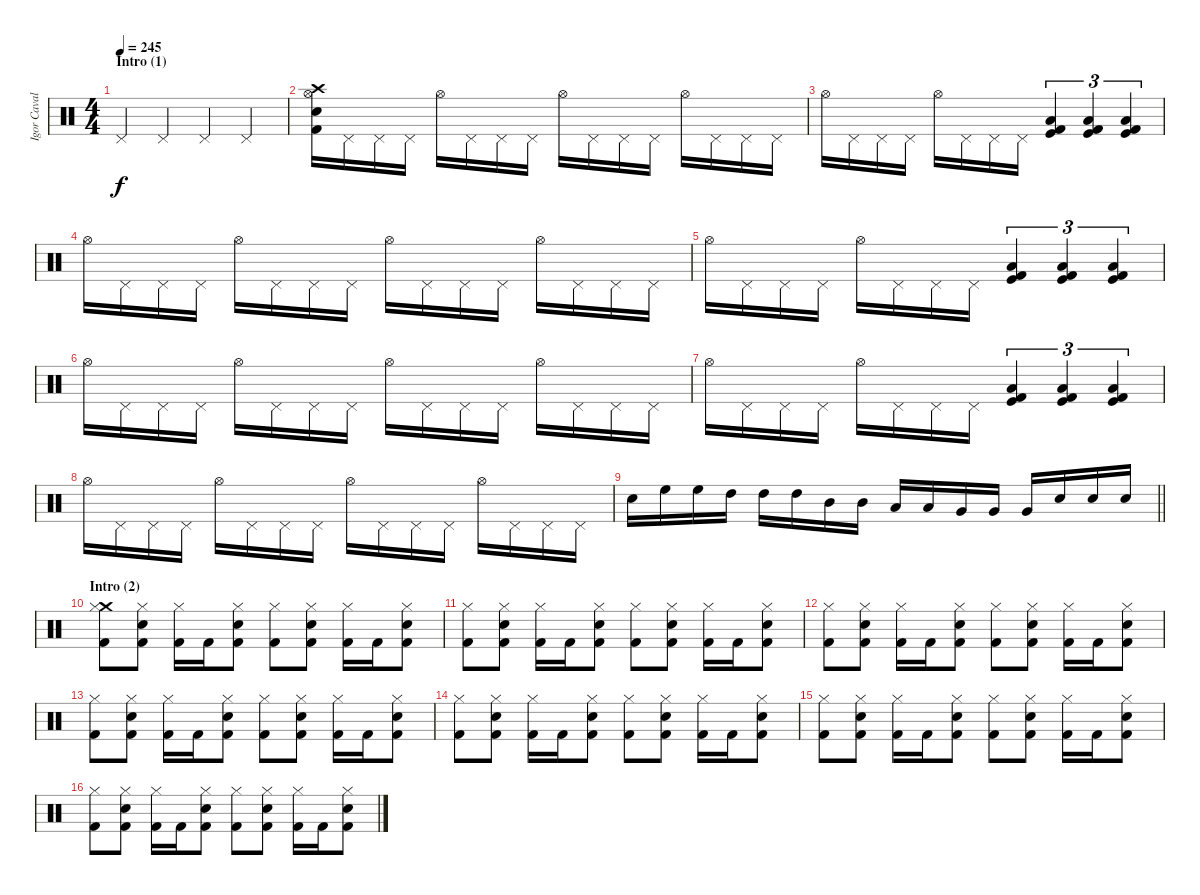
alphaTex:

\track ("Igor Cavalera" "Igor Caval") {instrument percussion}
\staff {score}
\articulation defaults
\ts (4 4)
\section ("" "Intro (1)")
\tempo 245
\clef neutral
\ks c "Pedal Hi-Hat (hit)".4{dy f} "Pedal Hi-Hat (hit)".4 "Pedal Hi-Hat (hit)".4 "Pedal Hi-Hat (hit)".4
|
("Crash high (hit)" "Hi-Hat (open)" "Electric Snare (hit)" "Kick (hit) 2").16 "Pedal Hi-Hat (hit)".16 "Pedal Hi-Hat (hit)".16 "Pedal Hi-Hat (hit)".16 "Hi-Hat (open)".16 "Pedal Hi-Hat (hit)".16 "Pedal Hi-Hat (hit)".16 "Pedal Hi-Hat (hit)".16 "Hi-Hat (open)".16 "Pedal Hi-Hat (hit)".16 "Pedal Hi-Hat (hit)".16 "Pedal Hi-Hat (hit)".16 "Hi-Hat (open)".16 "Pedal Hi-Hat (hit)".16 "Pedal Hi-Hat (hit)".16 "Pedal Hi-Hat (hit)".16 |
"Hi-Hat (open)".16 "Pedal Hi-Hat (hit)".16 "Pedal Hi-Hat (hit)".16 "Pedal Hi-Hat (hit)".16 "Hi-Hat (open)".16 "Pedal Hi-Hat (hit)".16 "Pedal Hi-Hat (hit)".16 "Pedal Hi-Hat (hit)".16 ("Low Tom (hit)" "Kick (hit) 2" "Kick (hit)").4{tu (3 2)} ("Low Tom (hit)" "Kick (hit) 2" "Kick (hit)").4{tu (3 2)} ("Low Tom (hit)" "Kick (hit) 2" "Kick (hit)").4{tu (3 2)} |
"Hi-Hat (open)".16 "Pedal Hi-Hat (hit)".16 "Pedal Hi-Hat (hit)".16 "Pedal Hi-Hat (hit)".16 "Hi-Hat (open)".16 "Pedal Hi-Hat (hit)".16 "Pedal Hi-Hat (hit)".16 "Pedal Hi-Hat (hit)".16 "Hi-Hat (open)".16 "Pedal Hi-Hat (hit)".16 "Pedal Hi-Hat (hit)".16 "Pedal Hi-Hat (hit)".16 "Hi-Hat (open)".16 "Pedal Hi-Hat (hit)".16 "Pedal Hi-Hat (hit)".16 "Pedal Hi-Hat (hit)".16 |
"Hi-Hat (open)".16 "Pedal Hi-Hat (hit)".16 "Pedal Hi-Hat (hit)".16 "Pedal Hi-Hat (hit)".16 "Hi-Hat (open)".16 "Pedal Hi-Hat (hit)".16 "Pedal Hi-Hat (hit)".16 "Pedal Hi-Hat (hit)".16 ("Low Tom (hit)" "Kick (hit) 2" "Kick (hit)").4{tu (3 2)} ("Low Tom (hit)" "Kick (hit) 2" "Kick (hit)").4{tu (3 2)} ("Low Tom (hit)" "Kick (hit) 2" "Kick (hit)").4{tu (3 2)} |
"Hi-Hat (open)".16 "Pedal Hi-Hat (hit)".16 "Pedal Hi-Hat (hit)".16 "Pedal Hi-Hat (hit)".16 "Hi-Hat (open)".16 "Pedal Hi-Hat (hit)".16 "Pedal Hi-Hat (hit)".16 "Pedal Hi-Hat (hit)".16 "Hi-Hat (open)".16 "Pedal Hi-Hat (hit)".16 "Pedal Hi-Hat (hit)".16 "Pedal Hi-Hat (hit)".16 "Hi-Hat (open)".16 "Pedal Hi-Hat (hit)".16 "Pedal Hi-Hat (hit)".16 "Pedal Hi-Hat (hit)".16 |
"Hi-Hat (open)".16 "Pedal Hi-Hat (hit)".16 "Pedal Hi-Hat (hit)".16 "Pedal Hi-Hat (hit)".16 "Hi-Hat (open)".16 "Pedal Hi-Hat (hit)".16 "Pedal Hi-Hat (hit)".16 "Pedal Hi-Hat (hit)".16 ("Low Tom (hit)" "Kick (hit) 2" "Kick (hit)").4{tu (3 2)} ("Low Tom (hit)" "Kick (hit) 2" "Kick (hit)").4{tu (3 2)} ("Low Tom (hit)" "Kick (hit) 2" "Kick (hit)").4{tu (3 2)} |
"Hi-Hat (open)".16 "Pedal Hi-Hat (hit)".16 "Pedal Hi-Hat (hit)".16 "Pedal Hi-Hat (hit)".16 "Hi-Hat (open)".16 "Pedal Hi-Hat (hit)".16 "Pedal Hi-Hat (hit)".16 "Pedal Hi-Hat (hit)".16 "Hi-Hat (open)".16 "Pedal Hi-Hat (hit)".16 "Pedal Hi-Hat (hit)".16 "Pedal Hi-Hat (hit)".16 "Hi-Hat (open)".16 "Pedal Hi-Hat (hit)".16 "Pedal Hi-Hat (hit)".16 "Pedal Hi-Hat (hit)".16 |
\barLineRight lightlight "Snare (hit) 2".16 "High Floor Tom (hit)".16 "High Floor Tom (hit)".16 "High Tom (hit)".16 "High Tom (hit)".16 "High Tom (hit)".16 "Mid Tom (hit)".16 "Mid Tom (hit)".16 "Low Tom (hit)".16 "Low Tom (hit)".16 "Very Low Tom (hit)".16 "Very Low Tom (hit)".16 "Very Low Tom (hit)".16 "Electric Snare (hit)".16 "Electric Snare (hit)".16 "Electric Snare (hit)".16
|
\section ("" "Intro (2)")
("Crash medium (hit)" "Hi-Hat (closed)" "Kick (hit) 2").8 ("Hi-Hat (closed)" "Electric Snare (hit)" "Kick (hit) 2").8 ("Hi-Hat (closed)" "Kick (hit) 2").16 "Kick (hit) 2".16 ("Hi-Hat (closed)" "Electric Snare (hit)" "Kick (hit) 2").8 ("Hi-Hat (closed)" "Kick (hit) 2").8 ("Hi-Hat (closed)" "Electric Snare (hit)" "Kick (hit) 2").8 ("Hi-Hat (closed)" "Kick (hit) 2").16 "Kick (hit) 2".16 ("Hi-Hat (closed)" "Electric Snare (hit)" "Kick (hit) 2").8 |
("Hi-Hat (closed)" "Kick (hit) 2").8 ("Hi-Hat (closed)" "Electric Snare (hit)" "Kick (hit) 2").8 ("Hi-Hat (closed)" "Kick (hit) 2").16 "Kick (hit) 2".16 ("Hi-Hat (closed)" "Electric Snare (hit)" "Kick (hit) 2").8 ("Hi-Hat (closed)" "Kick (hit) 2").8 ("Hi-Hat (closed)" "Electric Snare (hit)" "Kick (hit) 2").8 ("Hi-Hat (closed)" "Kick (hit) 2").16 "Kick (hit) 2".16 ("Hi-Hat (closed)" "Electric Snare (hit)" "Kick (hit) 2").8 |
("Hi-Hat (closed)" "Kick (hit) 2").8 ("Hi-Hat (closed)" "Electric Snare (hit)" "Kick (hit) 2").8 ("Hi-Hat (closed)" "Kick (hit) 2").16 "Kick (hit) 2".16 ("Hi-Hat (closed)" "Electric Snare (hit)" "Kick (hit) 2").8 ("Hi-Hat (closed)" "Kick (hit) 2").8 ("Hi-Hat (closed)" "Electric Snare (hit)" "Kick (hit) 2").8 ("Hi-Hat (closed)" "Kick (hit) 2").16 "Kick (hit) 2".16 ("Hi-Hat (closed)" "Electric Snare (hit)" "Kick (hit) 2").8 |
("Hi-Hat (closed)" "Kick (hit) 2").8 ("Hi-Hat (closed)" "Electric Snare (hit)" "Kick (hit) 2").8 ("Hi-Hat (closed)" "Kick (hit) 2").16 "Kick (hit) 2".16 ("Hi-Hat (closed)" "Electric Snare (hit)" "Kick (hit) 2").8 ("Hi-Hat (closed)" "Kick (hit) 2").8 ("Hi-Hat (closed)" "Electric Snare (hit)" "Kick (hit) 2").8 ("Hi-Hat (closed)" "Kick (hit) 2").16 "Kick (hit) 2".16 ("Hi-Hat (closed)" "Electric Snare (hit)" "Kick (hit) 2").8 |
("Hi-Hat (closed)" "Kick (hit) 2").8 ("Hi-Hat (closed)" "Electric Snare (hit)" "Kick (hit) 2").8 ("Hi-Hat (closed)" "Kick (hit) 2").16 "Kick (hit) 2".16 ("Hi-Hat (closed)" "Electric Snare (hit)" "Kick (hit) 2").8 ("Hi-Hat (closed)" "Kick (hit) 2").8 ("Hi-Hat (closed)" "Electric Snare (hit)" "Kick (hit) 2").8 ("Hi-Hat (closed)" "Kick (hit) 2").16 "Kick (hit) 2".16 ("Hi-Hat (closed)" "Electric Snare (hit)" "Kick (hit) 2").8 |
("Hi-Hat (closed)" "Kick (hit) 2").8 ("Hi-Hat (closed)" "Electric Snare (hit)" "Kick (hit) 2").8 ("Hi-Hat (closed)" "Kick (hit) 2").16 "Kick (hit) 2".16 ("Hi-Hat (closed)" "Electric Snare (hit)" "Kick (hit) 2").8 ("Hi-Hat (closed)" "Kick (hit) 2").8 ("Hi-Hat (closed)" "Electric Snare (hit)" "Kick (hit) 2").8 ("Hi-Hat (closed)" "Kick (hit) 2").16 "Kick (hit) 2".16 ("Hi-Hat (closed)" "Electric Snare (hit)" "Kick (hit) 2").8 |
("Hi-Hat (closed)" "Kick (hit) 2").8 ("Hi-Hat (closed)" "Electric Snare (hit)" "Kick (hit) 2").8 ("Hi-Hat (closed)" "Kick (hit) 2").16 "Kick (hit) 2".16 ("Hi-Hat (closed)" "Electric Snare (hit)" "Kick (hit) 2").8 ("Hi-Hat (closed)" "Kick (hit) 2").8 ("Hi-Hat (closed)" "Electric Snare (hit)" "Kick (hit) 2").8 ("Hi-Hat (closed)" "Kick (hit) 2").16 "Kick (hit) 2".16 ("Hi-Hat (closed)" "Electric Snare (hit)" "Kick (hit) 2").8
